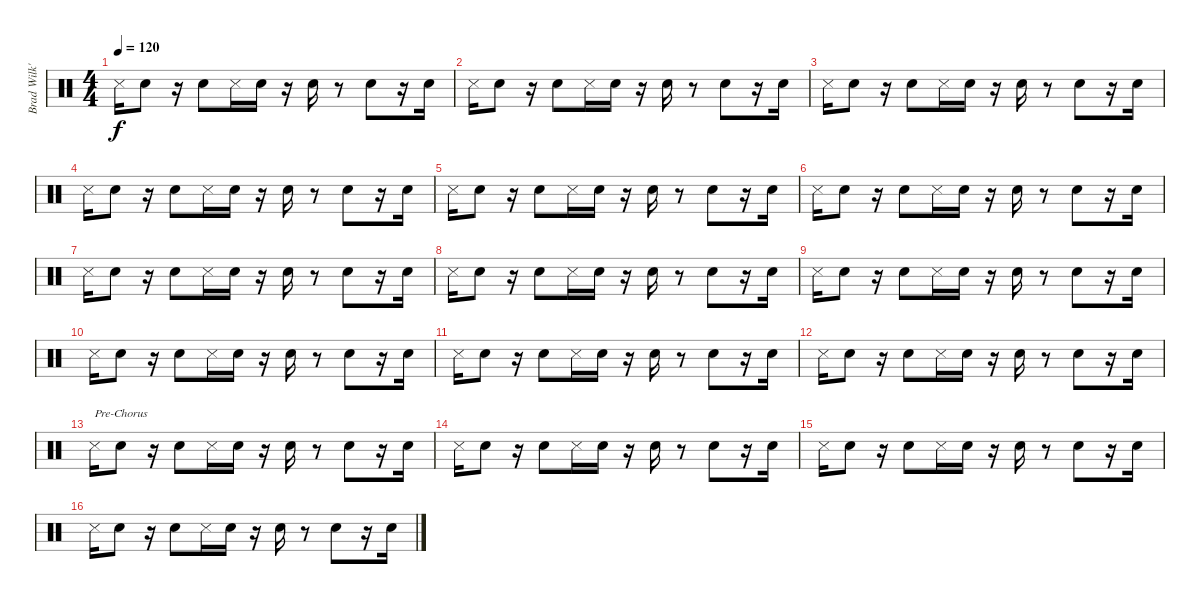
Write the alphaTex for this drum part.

\track ("Brad Wilk's Snare Drum" "Brad Wilk'") {instrument percussion}
\staff {score}
\articulation defaults
\ts (4 4)
\tempo 120
\clef neutral
\ks c "Snare (side stick) 3".16{dy f} "Electric Snare (hit)".8
r.16 "Electric Snare (hit)".8 "Snare (side stick) 3".16 "Electric Snare (hit)".16 r.16 "Electric Snare (hit)".16 r.8 "Electric Snare (hit)".8 r.16 "Electric Snare (hit)".16 |
"Snare (side stick) 3".16 "Electric Snare (hit)".8 r.16 "Electric Snare (hit)".8 "Snare (side stick) 3".16 "Electric Snare (hit)".16 r.16 "Electric Snare (hit)".16 r.8 "Electric Snare (hit)".8 r.16 "Electric Snare (hit)".16 |
"Snare (side stick) 3".16 "Electric Snare (hit)".8 r.16 "Electric Snare (hit)".8 "Snare (side stick) 3".16 "Electric Snare (hit)".16 r.16 "Electric Snare (hit)".16 r.8 "Electric Snare (hit)".8 r.16 "Electric Snare (hit)".16 |
"Snare (side stick) 3".16 "Electric Snare (hit)".8 r.16 "Electric Snare (hit)".8 "Snare (side stick) 3".16 "Electric Snare (hit)".16 r.16 "Electric Snare (hit)".16 r.8 "Electric Snare (hit)".8 r.16 "Electric Snare (hit)".16 |
"Snare (side stick) 3".16 "Electric Snare (hit)".8 r.16 "Electric Snare (hit)".8 "Snare (side stick) 3".16 "Electric Snare (hit)".16 r.16 "Electric Snare (hit)".16 r.8 "Electric Snare (hit)".8 r.16 "Electric Snare (hit)".16 |
"Snare (side stick) 3".16 "Electric Snare (hit)".8 r.16 "Electric Snare (hit)".8 "Snare (side stick) 3".16 "Electric Snare (hit)".16 r.16 "Electric Snare (hit)".16 r.8 "Electric Snare (hit)".8 r.16 "Electric Snare (hit)".16 |
"Snare (side stick) 3".16 "Electric Snare (hit)".8 r.16 "Electric Snare (hit)".8 "Snare (side stick) 3".16 "Electric Snare (hit)".16 r.16 "Electric Snare (hit)".16 r.8 "Electric Snare (hit)".8 r.16 "Electric Snare (hit)".16 |
"Snare (side stick) 3".16 "Electric Snare (hit)".8 r.16 "Electric Snare (hit)".8 "Snare (side stick) 3".16 "Electric Snare (hit)".16 r.16 "Electric Snare (hit)".16 r.8 "Electric Snare (hit)".8 r.16 "Electric Snare (hit)".16 |
"Snare (side stick) 3".16 "Electric Snare (hit)".8 r.16 "Electric Snare (hit)".8 "Snare (side stick) 3".16 "Electric Snare (hit)".16 r.16 "Electric Snare (hit)".16 r.8 "Electric Snare (hit)".8 r.16 "Electric Snare (hit)".16 |
"Snare (side stick) 3".16 "Electric Snare (hit)".8 r.16 "Electric Snare (hit)".8 "Snare (side stick) 3".16 "Electric Snare (hit)".16 r.16 "Electric Snare (hit)".16 r.8 "Electric Snare (hit)".8 r.16 "Electric Snare (hit)".16 |
"Snare (side stick) 3".16 "Electric Snare (hit)".8 r.16 "Electric Snare (hit)".8 "Snare (side stick) 3".16 "Electric Snare (hit)".16 r.16 "Electric Snare (hit)".16 r.8 "Electric Snare (hit)".8 r.16 "Electric Snare (hit)".16 |
"Snare (side stick) 3".16 "Electric Snare (hit)".8 r.16 "Electric Snare (hit)".8 "Snare (side stick) 3".16 "Electric Snare (hit)".16 r.16 "Electric Snare (hit)".16 r.8 "Electric Snare (hit)".8 r.16 "Electric Snare (hit)".16 |
"Snare (side stick) 3".16{txt "Pre-Chorus"} "Electric Snare (hit)".8 r.16 "Electric Snare (hit)".8 "Snare (side stick) 3".16 "Electric Snare (hit)".16 r.16 "Electric Snare (hit)".16 r.8 "Electric Snare (hit)".8 r.16 "Electric Snare (hit)".16 |
"Snare (side stick) 3".16 "Electric Snare (hit)".8 r.16 "Electric Snare (hit)".8 "Snare (side stick) 3".16 "Electric Snare (hit)".16 r.16 "Electric Snare (hit)".16 r.8 "Electric Snare (hit)".8 r.16 "Electric Snare (hit)".16 |
"Snare (side stick) 3".16 "Electric Snare (hit)".8 r.16 "Electric Snare (hit)".8 "Snare (side stick) 3".16 "Electric Snare (hit)".16 r.16 "Electric Snare (hit)".16 r.8 "Electric Snare (hit)".8 r.16 "Electric Snare (hit)".16 |
"Snare (side stick) 3".16 "Electric Snare (hit)".8 r.16 "Electric Snare (hit)".8 "Snare (side stick) 3".16 "Electric Snare (hit)".16 r.16 "Electric Snare (hit)".16 r.8 "Electric Snare (hit)".8 r.16 "Electric Snare (hit)".16
